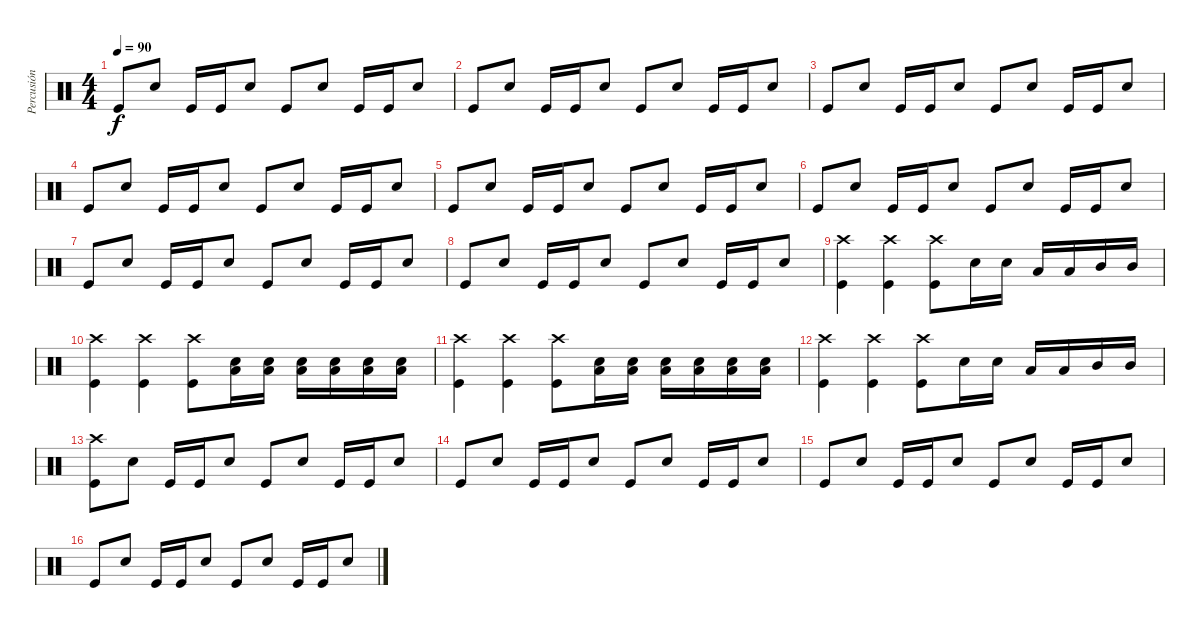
\track ("Percusión" "Percusión") {instrument percussion}
\staff {score}
\articulation defaults
\ts (4 4)
\tempo 90
\clef neutral
\ks c "Kick (hit)".8{dy f} "Electric Snare (hit)".8 "Kick (hit)".16 "Kick (hit)".16 "Electric Snare (hit)".8 "Kick (hit)".8 "Electric Snare (hit)".8 "Kick (hit)".16 "Kick (hit)".16 "Electric Snare (hit)".8
|
"Kick (hit)".8 "Electric Snare (hit)".8 "Kick (hit)".16 "Kick (hit)".16 "Electric Snare (hit)".8 "Kick (hit)".8 "Electric Snare (hit)".8 "Kick (hit)".16 "Kick (hit)".16 "Electric Snare (hit)".8 |
"Kick (hit)".8 "Electric Snare (hit)".8 "Kick (hit)".16 "Kick (hit)".16 "Electric Snare (hit)".8 "Kick (hit)".8 "Electric Snare (hit)".8 "Kick (hit)".16 "Kick (hit)".16 "Electric Snare (hit)".8 |
"Kick (hit)".8 "Electric Snare (hit)".8 "Kick (hit)".16 "Kick (hit)".16 "Electric Snare (hit)".8 "Kick (hit)".8 "Electric Snare (hit)".8 "Kick (hit)".16 "Kick (hit)".16 "Electric Snare (hit)".8 |
"Kick (hit)".8 "Electric Snare (hit)".8 "Kick (hit)".16 "Kick (hit)".16 "Electric Snare (hit)".8 "Kick (hit)".8 "Electric Snare (hit)".8 "Kick (hit)".16 "Kick (hit)".16 "Electric Snare (hit)".8 |
"Kick (hit)".8 "Electric Snare (hit)".8 "Kick (hit)".16 "Kick (hit)".16 "Electric Snare (hit)".8 "Kick (hit)".8 "Electric Snare (hit)".8 "Kick (hit)".16 "Kick (hit)".16 "Electric Snare (hit)".8 |
"Kick (hit)".8 "Electric Snare (hit)".8 "Kick (hit)".16 "Kick (hit)".16 "Electric Snare (hit)".8 "Kick (hit)".8 "Electric Snare (hit)".8 "Kick (hit)".16 "Kick (hit)".16 "Electric Snare (hit)".8 |
"Kick (hit)".8 "Electric Snare (hit)".8 "Kick (hit)".16 "Kick (hit)".16 "Electric Snare (hit)".8 "Kick (hit)".8 "Electric Snare (hit)".8 "Kick (hit)".16 "Kick (hit)".16 "Electric Snare (hit)".8 |
("Crash high (hit)" "Kick (hit)").4 ("Crash high (hit)" "Kick (hit)").4 ("Crash high (hit)" "Kick (hit)").8 "Electric Snare (hit)".16 "Electric Snare (hit)".16 "Low Tom (hit)".16 "Low Tom (hit)".16 "Mid Tom (hit)".16 "Mid Tom (hit)".16 |
("Crash high (hit)" "Kick (hit)").4 ("Crash high (hit)" "Kick (hit)").4 ("Crash high (hit)" "Kick (hit)").8 ("Low Floor Tom (hit)" "Electric Snare (hit)").16 ("Low Floor Tom (hit)" "Electric Snare (hit)").16 ("Low Floor Tom (hit)" "Electric Snare (hit)").16 ("Low Floor Tom (hit)" "Electric Snare (hit)").16 ("Low Floor Tom (hit)" "Electric Snare (hit)").16 ("Low Floor Tom (hit)" "Electric Snare (hit)").16 |
("Crash high (hit)" "Kick (hit)").4 ("Crash high (hit)" "Kick (hit)").4 ("Crash high (hit)" "Kick (hit)").8 ("Low Floor Tom (hit)" "Electric Snare (hit)").16 ("Low Floor Tom (hit)" "Electric Snare (hit)").16 ("Low Floor Tom (hit)" "Electric Snare (hit)").16 ("Low Floor Tom (hit)" "Electric Snare (hit)").16 ("Low Floor Tom (hit)" "Electric Snare (hit)").16 ("Low Floor Tom (hit)" "Electric Snare (hit)").16 |
("Crash high (hit)" "Kick (hit)").4 ("Crash high (hit)" "Kick (hit)").4 ("Crash high (hit)" "Kick (hit)").8 "Electric Snare (hit)".16 "Electric Snare (hit)".16 "Low Tom (hit)".16 "Low Tom (hit)".16 "Mid Tom (hit)".16 "Mid Tom (hit)".16 |
("Crash high (hit)" "Kick (hit)").8 "Electric Snare (hit)".8 "Kick (hit)".16 "Kick (hit)".16 "Electric Snare (hit)".8 "Kick (hit)".8 "Electric Snare (hit)".8 "Kick (hit)".16 "Kick (hit)".16 "Electric Snare (hit)".8 |
"Kick (hit)".8 "Electric Snare (hit)".8 "Kick (hit)".16 "Kick (hit)".16 "Electric Snare (hit)".8 "Kick (hit)".8 "Electric Snare (hit)".8 "Kick (hit)".16 "Kick (hit)".16 "Electric Snare (hit)".8 |
"Kick (hit)".8 "Electric Snare (hit)".8 "Kick (hit)".16 "Kick (hit)".16 "Electric Snare (hit)".8 "Kick (hit)".8 "Electric Snare (hit)".8 "Kick (hit)".16 "Kick (hit)".16 "Electric Snare (hit)".8 |
"Kick (hit)".8 "Electric Snare (hit)".8 "Kick (hit)".16 "Kick (hit)".16 "Electric Snare (hit)".8 "Kick (hit)".8 "Electric Snare (hit)".8 "Kick (hit)".16 "Kick (hit)".16 "Electric Snare (hit)".8
